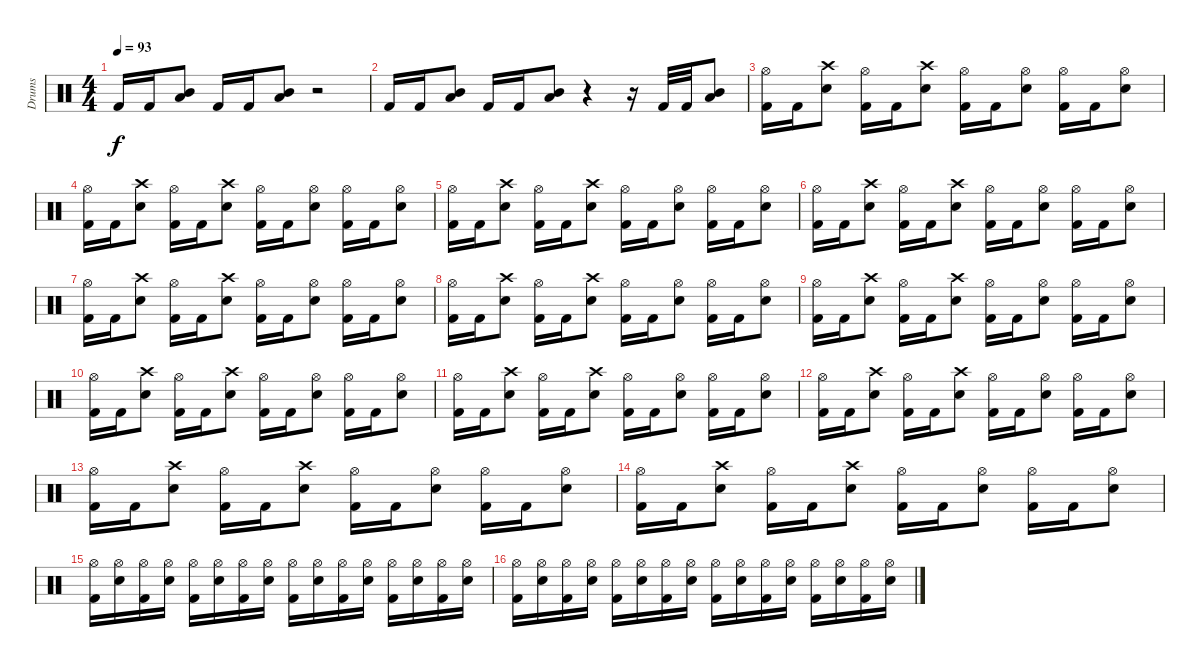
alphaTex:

\track ("Drums" "Drums") {instrument percussion}
\staff {score}
\articulation defaults
\ts (4 4)
\tempo 93
\clef neutral
\ks c "Kick (hit) 2".16{dy f} "Kick (hit) 2".16
("Mid Tom (hit)" "Low Tom (hit)").8 "Kick (hit) 2".16 "Kick (hit) 2".16 ("Mid Tom (hit)" "Low Tom (hit)").8 r.2 |
"Kick (hit) 2".16 "Kick (hit) 2".16 ("Mid Tom (hit)" "Low Tom (hit)").8 "Kick (hit) 2".16 "Kick (hit) 2".16 ("Mid Tom (hit)" "Low Tom (hit)").8 r.4 r.16 "Kick (hit) 2".32 "Kick (hit) 2".32 ("Mid Tom (hit)" "Low Tom (hit)").8 |
("Hi-Hat (open)" "Kick (hit) 2").16 "Kick (hit) 2".16 ("Crash high (hit)" "Electric Snare (hit)").8 ("Hi-Hat (open)" "Kick (hit) 2").16 "Kick (hit) 2".16 ("Crash high (hit)" "Electric Snare (hit)").8 ("Hi-Hat (open)" "Kick (hit) 2").16 "Kick (hit) 2".16 ("Hi-Hat (open)" "Electric Snare (hit)").8 ("Hi-Hat (open)" "Kick (hit) 2").16 "Kick (hit) 2".16 ("Hi-Hat (open)" "Electric Snare (hit)").8 |
("Hi-Hat (open)" "Kick (hit) 2").16 "Kick (hit) 2".16 ("Crash high (hit)" "Electric Snare (hit)").8 ("Hi-Hat (open)" "Kick (hit) 2").16 "Kick (hit) 2".16 ("Crash high (hit)" "Electric Snare (hit)").8 ("Hi-Hat (open)" "Kick (hit) 2").16 "Kick (hit) 2".16 ("Hi-Hat (open)" "Electric Snare (hit)").8 ("Hi-Hat (open)" "Kick (hit) 2").16 "Kick (hit) 2".16 ("Hi-Hat (open)" "Electric Snare (hit)").8 |
("Hi-Hat (open)" "Kick (hit) 2").16 "Kick (hit) 2".16 ("Crash high (hit)" "Electric Snare (hit)").8 ("Hi-Hat (open)" "Kick (hit) 2").16 "Kick (hit) 2".16 ("Crash high (hit)" "Electric Snare (hit)").8 ("Hi-Hat (open)" "Kick (hit) 2").16 "Kick (hit) 2".16 ("Hi-Hat (open)" "Electric Snare (hit)").8 ("Hi-Hat (open)" "Kick (hit) 2").16 "Kick (hit) 2".16 ("Hi-Hat (open)" "Electric Snare (hit)").8 |
("Hi-Hat (open)" "Kick (hit) 2").16 "Kick (hit) 2".16 ("Crash high (hit)" "Electric Snare (hit)").8 ("Hi-Hat (open)" "Kick (hit) 2").16 "Kick (hit) 2".16 ("Crash high (hit)" "Electric Snare (hit)").8 ("Hi-Hat (open)" "Kick (hit) 2").16 "Kick (hit) 2".16 ("Hi-Hat (open)" "Electric Snare (hit)").8 ("Hi-Hat (open)" "Kick (hit) 2").16 "Kick (hit) 2".16 ("Hi-Hat (open)" "Electric Snare (hit)").8 |
("Hi-Hat (open)" "Kick (hit) 2").16 "Kick (hit) 2".16 ("Crash high (hit)" "Electric Snare (hit)").8 ("Hi-Hat (open)" "Kick (hit) 2").16 "Kick (hit) 2".16 ("Crash high (hit)" "Electric Snare (hit)").8 ("Hi-Hat (open)" "Kick (hit) 2").16 "Kick (hit) 2".16 ("Hi-Hat (open)" "Electric Snare (hit)").8 ("Hi-Hat (open)" "Kick (hit) 2").16 "Kick (hit) 2".16 ("Hi-Hat (open)" "Electric Snare (hit)").8 |
("Hi-Hat (open)" "Kick (hit) 2").16 "Kick (hit) 2".16 ("Crash high (hit)" "Electric Snare (hit)").8 ("Hi-Hat (open)" "Kick (hit) 2").16 "Kick (hit) 2".16 ("Crash high (hit)" "Electric Snare (hit)").8 ("Hi-Hat (open)" "Kick (hit) 2").16 "Kick (hit) 2".16 ("Hi-Hat (open)" "Electric Snare (hit)").8 ("Hi-Hat (open)" "Kick (hit) 2").16 "Kick (hit) 2".16 ("Hi-Hat (open)" "Electric Snare (hit)").8 |
("Hi-Hat (open)" "Kick (hit) 2").16 "Kick (hit) 2".16 ("Crash high (hit)" "Electric Snare (hit)").8 ("Hi-Hat (open)" "Kick (hit) 2").16 "Kick (hit) 2".16 ("Crash high (hit)" "Electric Snare (hit)").8 ("Hi-Hat (open)" "Kick (hit) 2").16 "Kick (hit) 2".16 ("Hi-Hat (open)" "Electric Snare (hit)").8 ("Hi-Hat (open)" "Kick (hit) 2").16 "Kick (hit) 2".16 ("Hi-Hat (open)" "Electric Snare (hit)").8 |
("Hi-Hat (open)" "Kick (hit) 2").16 "Kick (hit) 2".16 ("Crash high (hit)" "Electric Snare (hit)").8 ("Hi-Hat (open)" "Kick (hit) 2").16 "Kick (hit) 2".16 ("Crash high (hit)" "Electric Snare (hit)").8 ("Hi-Hat (open)" "Kick (hit) 2").16 "Kick (hit) 2".16 ("Hi-Hat (open)" "Electric Snare (hit)").8 ("Hi-Hat (open)" "Kick (hit) 2").16 "Kick (hit) 2".16 ("Hi-Hat (open)" "Electric Snare (hit)").8 |
("Hi-Hat (open)" "Kick (hit) 2").16 "Kick (hit) 2".16 ("Crash high (hit)" "Electric Snare (hit)").8 ("Hi-Hat (open)" "Kick (hit) 2").16 "Kick (hit) 2".16 ("Crash high (hit)" "Electric Snare (hit)").8 ("Hi-Hat (open)" "Kick (hit) 2").16 "Kick (hit) 2".16 ("Hi-Hat (open)" "Electric Snare (hit)").8 ("Hi-Hat (open)" "Kick (hit) 2").16 "Kick (hit) 2".16 ("Hi-Hat (open)" "Electric Snare (hit)").8 |
("Hi-Hat (open)" "Kick (hit) 2").16 "Kick (hit) 2".16 ("Crash high (hit)" "Electric Snare (hit)").8 ("Hi-Hat (open)" "Kick (hit) 2").16 "Kick (hit) 2".16 ("Crash high (hit)" "Electric Snare (hit)").8 ("Hi-Hat (open)" "Kick (hit) 2").16 "Kick (hit) 2".16 ("Hi-Hat (open)" "Electric Snare (hit)").8 ("Hi-Hat (open)" "Kick (hit) 2").16 "Kick (hit) 2".16 ("Hi-Hat (open)" "Electric Snare (hit)").8 |
("Hi-Hat (open)" "Kick (hit) 2").16 "Kick (hit) 2".16 ("Crash high (hit)" "Electric Snare (hit)").8 ("Hi-Hat (open)" "Kick (hit) 2").16 "Kick (hit) 2".16 ("Crash high (hit)" "Electric Snare (hit)").8 ("Hi-Hat (open)" "Kick (hit) 2").16 "Kick (hit) 2".16 ("Hi-Hat (open)" "Electric Snare (hit)").8 ("Hi-Hat (open)" "Kick (hit) 2").16 "Kick (hit) 2".16 ("Hi-Hat (open)" "Electric Snare (hit)").8 |
("Hi-Hat (open)" "Kick (hit) 2").16 "Kick (hit) 2".16 ("Crash high (hit)" "Electric Snare (hit)").8 ("Hi-Hat (open)" "Kick (hit) 2").16 "Kick (hit) 2".16 ("Crash high (hit)" "Electric Snare (hit)").8 ("Hi-Hat (open)" "Kick (hit) 2").16 "Kick (hit) 2".16 ("Hi-Hat (open)" "Electric Snare (hit)").8 ("Hi-Hat (open)" "Kick (hit) 2").16 "Kick (hit) 2".16 ("Hi-Hat (open)" "Electric Snare (hit)").8 |
("Hi-Hat (open)" "Kick (hit) 2").16 ("Hi-Hat (open)" "Electric Snare (hit)").16 ("Hi-Hat (open)" "Kick (hit) 2").16 ("Hi-Hat (open)" "Electric Snare (hit)").16 ("Hi-Hat (open)" "Kick (hit) 2").16 ("Hi-Hat (open)" "Electric Snare (hit)").16 ("Hi-Hat (open)" "Kick (hit) 2").16 ("Hi-Hat (open)" "Electric Snare (hit)").16 ("Hi-Hat (open)" "Kick (hit) 2").16 ("Hi-Hat (open)" "Electric Snare (hit)").16 ("Hi-Hat (open)" "Kick (hit) 2").16 ("Hi-Hat (open)" "Electric Snare (hit)").16 ("Hi-Hat (open)" "Kick (hit) 2").16 ("Hi-Hat (open)" "Electric Snare (hit)").16 ("Hi-Hat (open)" "Kick (hit) 2").16 ("Hi-Hat (open)" "Electric Snare (hit)").16 |
("Hi-Hat (open)" "Kick (hit) 2").16 ("Hi-Hat (open)" "Electric Snare (hit)").16 ("Hi-Hat (open)" "Kick (hit) 2").16 ("Hi-Hat (open)" "Electric Snare (hit)").16 ("Hi-Hat (open)" "Kick (hit) 2").16 ("Hi-Hat (open)" "Electric Snare (hit)").16 ("Hi-Hat (open)" "Kick (hit) 2").16 ("Hi-Hat (open)" "Electric Snare (hit)").16 ("Hi-Hat (open)" "Kick (hit) 2").16 ("Hi-Hat (open)" "Electric Snare (hit)").16 ("Hi-Hat (open)" "Kick (hit) 2").16 ("Hi-Hat (open)" "Electric Snare (hit)").16 ("Hi-Hat (open)" "Kick (hit) 2").16 ("Hi-Hat (open)" "Electric Snare (hit)").16 ("Hi-Hat (open)" "Kick (hit) 2").16 ("Hi-Hat (open)" "Electric Snare (hit)").16
